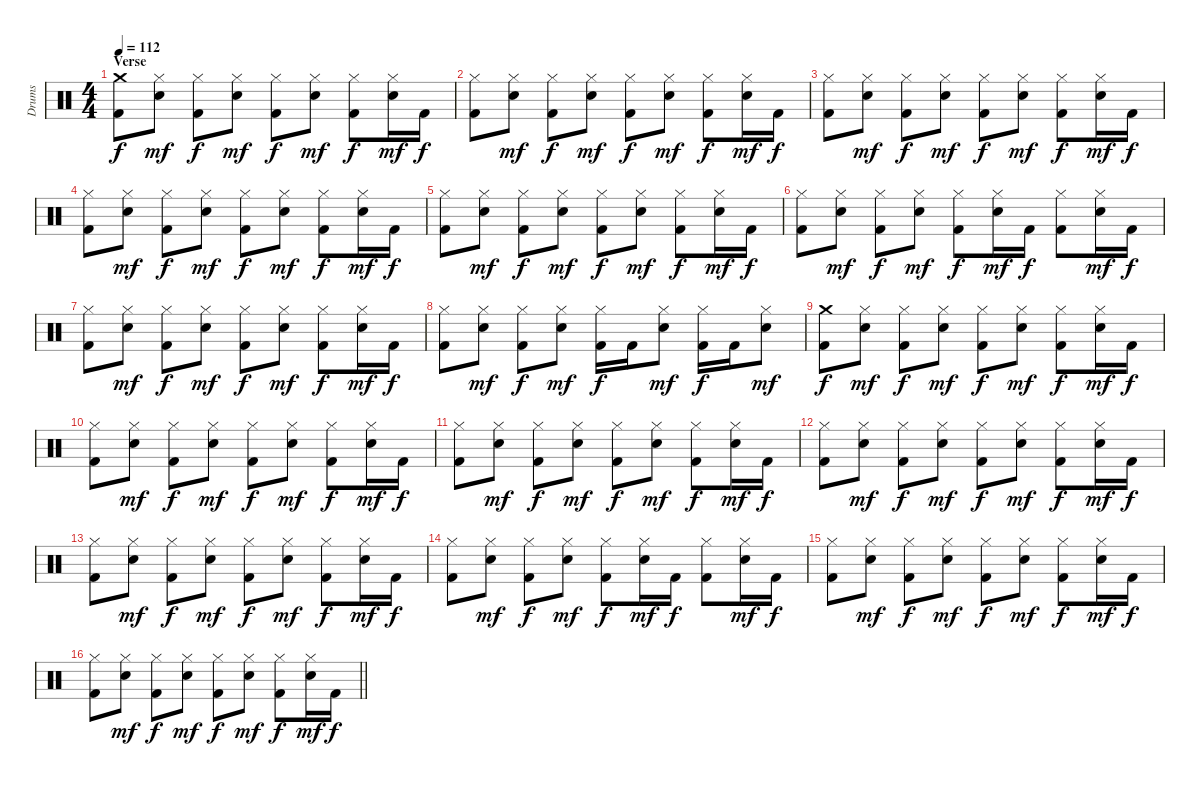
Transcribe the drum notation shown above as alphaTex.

\track ("Drums" "Drums") {instrument percussion}
\staff {score}
\articulation defaults
\ts (4 4)
\section ("" "Verse")
\tempo 112
\clef neutral
\ks c
("Crash medium (hit)" "Kick (hit) 2").8{dy f} ("Hi-Hat (closed)" "Snare (hit) 2").8{dy mf} ("Hi-Hat (closed)" "Kick (hit) 2").8{dy f} ("Hi-Hat (closed)" "Snare (hit) 2").8{dy mf} ("Hi-Hat (closed)" "Kick (hit) 2").8{dy f} ("Hi-Hat (closed)" "Snare (hit) 2").8{dy mf} ("Hi-Hat (closed)" "Kick (hit) 2").8{dy f} ("Hi-Hat (closed)" "Snare (hit) 2").16{dy mf} "Kick (hit) 2".16{dy f} |
("Hi-Hat (closed)" "Kick (hit) 2").8 ("Hi-Hat (closed)" "Snare (hit) 2").8{dy mf} ("Hi-Hat (closed)" "Kick (hit) 2").8{dy f} ("Hi-Hat (closed)" "Snare (hit) 2").8{dy mf} ("Hi-Hat (closed)" "Kick (hit) 2").8{dy f} ("Hi-Hat (closed)" "Snare (hit) 2").8{dy mf} ("Hi-Hat (closed)" "Kick (hit) 2").8{dy f} ("Hi-Hat (closed)" "Snare (hit) 2").16{dy mf} "Kick (hit) 2".16{dy f} |
("Hi-Hat (closed)" "Kick (hit) 2").8 ("Hi-Hat (closed)" "Snare (hit) 2").8{dy mf} ("Hi-Hat (closed)" "Kick (hit) 2").8{dy f} ("Hi-Hat (closed)" "Snare (hit) 2").8{dy mf} ("Hi-Hat (closed)" "Kick (hit) 2").8{dy f} ("Hi-Hat (closed)" "Snare (hit) 2").8{dy mf} ("Hi-Hat (closed)" "Kick (hit) 2").8{dy f} ("Hi-Hat (closed)" "Snare (hit) 2").16{dy mf} "Kick (hit) 2".16{dy f} |
("Hi-Hat (closed)" "Kick (hit) 2").8 ("Hi-Hat (closed)" "Snare (hit) 2").8{dy mf} ("Hi-Hat (closed)" "Kick (hit) 2").8{dy f} ("Hi-Hat (closed)" "Snare (hit) 2").8{dy mf} ("Hi-Hat (closed)" "Kick (hit) 2").8{dy f} ("Hi-Hat (closed)" "Snare (hit) 2").8{dy mf} ("Hi-Hat (closed)" "Kick (hit) 2").8{dy f} ("Hi-Hat (closed)" "Snare (hit) 2").16{dy mf} "Kick (hit) 2".16{dy f} |
("Hi-Hat (closed)" "Kick (hit) 2").8 ("Hi-Hat (closed)" "Snare (hit) 2").8{dy mf} ("Hi-Hat (closed)" "Kick (hit) 2").8{dy f} ("Hi-Hat (closed)" "Snare (hit) 2").8{dy mf} ("Hi-Hat (closed)" "Kick (hit) 2").8{dy f} ("Hi-Hat (closed)" "Snare (hit) 2").8{dy mf} ("Hi-Hat (closed)" "Kick (hit) 2").8{dy f} ("Hi-Hat (closed)" "Snare (hit) 2").16{dy mf} "Kick (hit) 2".16{dy f} |
("Hi-Hat (closed)" "Kick (hit) 2").8 ("Hi-Hat (closed)" "Snare (hit) 2").8{dy mf} ("Hi-Hat (closed)" "Kick (hit) 2").8{dy f} ("Hi-Hat (closed)" "Snare (hit) 2").8{dy mf} ("Hi-Hat (closed)" "Kick (hit) 2").8{dy f} ("Hi-Hat (closed)" "Snare (hit) 2").16{dy mf} "Kick (hit) 2".16{dy f} ("Hi-Hat (closed)" "Kick (hit) 2").8 ("Hi-Hat (closed)" "Snare (hit) 2").16{dy mf} "Kick (hit) 2".16{dy f} |
("Hi-Hat (closed)" "Kick (hit) 2").8 ("Hi-Hat (closed)" "Snare (hit) 2").8{dy mf} ("Hi-Hat (closed)" "Kick (hit) 2").8{dy f} ("Hi-Hat (closed)" "Snare (hit) 2").8{dy mf} ("Hi-Hat (closed)" "Kick (hit) 2").8{dy f} ("Hi-Hat (closed)" "Snare (hit) 2").8{dy mf} ("Hi-Hat (closed)" "Kick (hit) 2").8{dy f} ("Hi-Hat (closed)" "Snare (hit) 2").16{dy mf} "Kick (hit) 2".16{dy f} |
("Hi-Hat (closed)" "Kick (hit) 2").8 ("Hi-Hat (closed)" "Snare (hit) 2").8{dy mf} ("Hi-Hat (closed)" "Kick (hit) 2").8{dy f} ("Hi-Hat (closed)" "Snare (hit) 2").8{dy mf} ("Hi-Hat (closed)" "Kick (hit) 2").16{dy f} "Kick (hit) 2".16 ("Hi-Hat (closed)" "Snare (hit) 2").8{dy mf} ("Hi-Hat (closed)" "Kick (hit) 2").16{dy f} "Kick (hit) 2".16 ("Hi-Hat (closed)" "Snare (hit) 2").8{dy mf} |
("Crash medium (hit)" "Kick (hit) 2").8{dy f} ("Hi-Hat (closed)" "Snare (hit) 2").8{dy mf} ("Hi-Hat (closed)" "Kick (hit) 2").8{dy f} ("Hi-Hat (closed)" "Snare (hit) 2").8{dy mf} ("Hi-Hat (closed)" "Kick (hit) 2").8{dy f} ("Hi-Hat (closed)" "Snare (hit) 2").8{dy mf} ("Hi-Hat (closed)" "Kick (hit) 2").8{dy f} ("Hi-Hat (closed)" "Snare (hit) 2").16{dy mf} "Kick (hit) 2".16{dy f} |
("Hi-Hat (closed)" "Kick (hit) 2").8 ("Hi-Hat (closed)" "Snare (hit) 2").8{dy mf} ("Hi-Hat (closed)" "Kick (hit) 2").8{dy f} ("Hi-Hat (closed)" "Snare (hit) 2").8{dy mf} ("Hi-Hat (closed)" "Kick (hit) 2").8{dy f} ("Hi-Hat (closed)" "Snare (hit) 2").8{dy mf} ("Hi-Hat (closed)" "Kick (hit) 2").8{dy f} ("Hi-Hat (closed)" "Snare (hit) 2").16{dy mf} "Kick (hit) 2".16{dy f} |
("Hi-Hat (closed)" "Kick (hit) 2").8 ("Hi-Hat (closed)" "Snare (hit) 2").8{dy mf} ("Hi-Hat (closed)" "Kick (hit) 2").8{dy f} ("Hi-Hat (closed)" "Snare (hit) 2").8{dy mf} ("Hi-Hat (closed)" "Kick (hit) 2").8{dy f} ("Hi-Hat (closed)" "Snare (hit) 2").8{dy mf} ("Hi-Hat (closed)" "Kick (hit) 2").8{dy f} ("Hi-Hat (closed)" "Snare (hit) 2").16{dy mf} "Kick (hit) 2".16{dy f} |
("Hi-Hat (closed)" "Kick (hit) 2").8 ("Hi-Hat (closed)" "Snare (hit) 2").8{dy mf} ("Hi-Hat (closed)" "Kick (hit) 2").8{dy f} ("Hi-Hat (closed)" "Snare (hit) 2").8{dy mf} ("Hi-Hat (closed)" "Kick (hit) 2").8{dy f} ("Hi-Hat (closed)" "Snare (hit) 2").8{dy mf} ("Hi-Hat (closed)" "Kick (hit) 2").8{dy f} ("Hi-Hat (closed)" "Snare (hit) 2").16{dy mf} "Kick (hit) 2".16{dy f} |
("Hi-Hat (closed)" "Kick (hit) 2").8 ("Hi-Hat (closed)" "Snare (hit) 2").8{dy mf} ("Hi-Hat (closed)" "Kick (hit) 2").8{dy f} ("Hi-Hat (closed)" "Snare (hit) 2").8{dy mf} ("Hi-Hat (closed)" "Kick (hit) 2").8{dy f} ("Hi-Hat (closed)" "Snare (hit) 2").8{dy mf} ("Hi-Hat (closed)" "Kick (hit) 2").8{dy f} ("Hi-Hat (closed)" "Snare (hit) 2").16{dy mf} "Kick (hit) 2".16{dy f} |
("Hi-Hat (closed)" "Kick (hit) 2").8 ("Hi-Hat (closed)" "Snare (hit) 2").8{dy mf} ("Hi-Hat (closed)" "Kick (hit) 2").8{dy f} ("Hi-Hat (closed)" "Snare (hit) 2").8{dy mf} ("Hi-Hat (closed)" "Kick (hit) 2").8{dy f} ("Hi-Hat (closed)" "Snare (hit) 2").16{dy mf} "Kick (hit) 2".16{dy f} ("Hi-Hat (closed)" "Kick (hit) 2").8 ("Hi-Hat (closed)" "Snare (hit) 2").16{dy mf} "Kick (hit) 2".16{dy f} |
("Hi-Hat (closed)" "Kick (hit) 2").8 ("Hi-Hat (closed)" "Snare (hit) 2").8{dy mf} ("Hi-Hat (closed)" "Kick (hit) 2").8{dy f} ("Hi-Hat (closed)" "Snare (hit) 2").8{dy mf} ("Hi-Hat (closed)" "Kick (hit) 2").8{dy f} ("Hi-Hat (closed)" "Snare (hit) 2").8{dy mf} ("Hi-Hat (closed)" "Kick (hit) 2").8{dy f} ("Hi-Hat (closed)" "Snare (hit) 2").16{dy mf} "Kick (hit) 2".16{dy f} |
\barLineRight lightlight
("Hi-Hat (closed)" "Kick (hit) 2").8 ("Hi-Hat (closed)" "Snare (hit) 2").8{dy mf} ("Hi-Hat (closed)" "Kick (hit) 2").8{dy f} ("Hi-Hat (closed)" "Snare (hit) 2").8{dy mf} ("Hi-Hat (closed)" "Kick (hit) 2").8{dy f} ("Hi-Hat (closed)" "Snare (hit) 2").8{dy mf} ("Hi-Hat (closed)" "Kick (hit) 2").8{dy f} ("Hi-Hat (closed)" "Snare (hit) 2").16{dy mf} "Kick (hit) 2".16{dy f}
